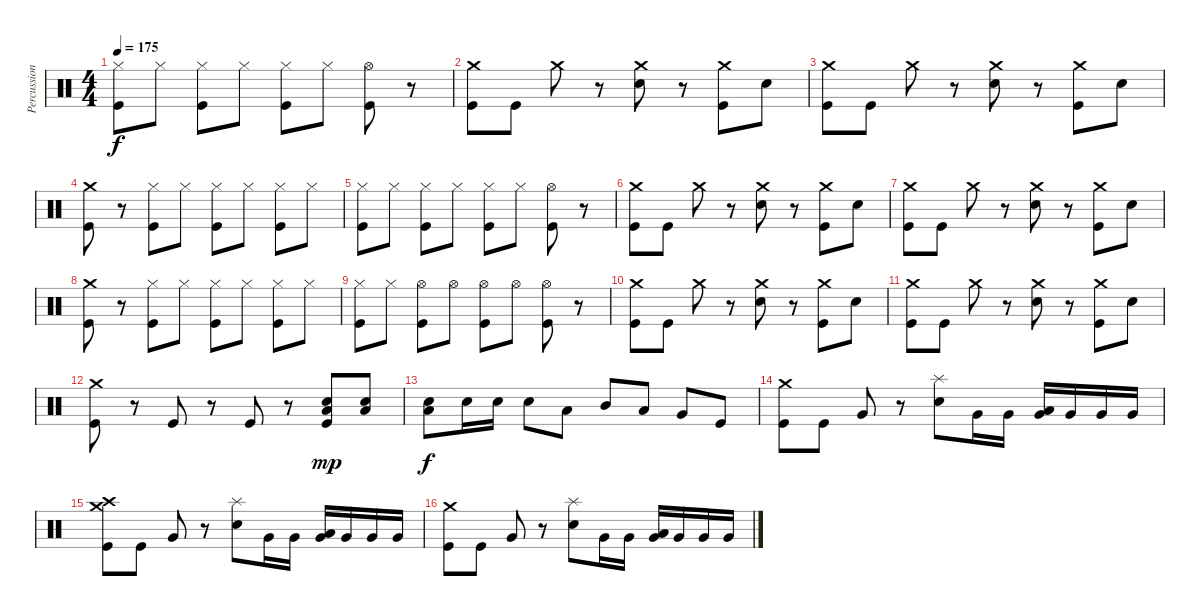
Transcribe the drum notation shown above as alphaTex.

\track ("Percussion" "Percussion") {instrument percussion}
\staff {score}
\articulation defaults
\ts (4 4)
\tempo 175
\clef neutral
\ks c
("Hi-Hat (closed)" "Kick (hit)").8{dy f} "Hi-Hat (closed)".8 ("Hi-Hat (closed)" "Kick (hit)").8 "Hi-Hat (closed)".8 ("Hi-Hat (closed)" "Kick (hit)").8 "Hi-Hat (closed)".8 ("Hi-Hat (open)" "Kick (hit)").8 r.8 |
("Crash medium (hit)" "Kick (hit)").8 "Kick (hit)".8 "Crash medium (hit)".8 r.8 ("Crash medium (hit)" "Electric Snare (hit)").8 r.8 ("Crash medium (hit)" "Kick (hit)").8 "Electric Snare (hit)".8 |
("Crash medium (hit)" "Kick (hit)").8 "Kick (hit)".8 "Crash medium (hit)".8 r.8 ("Crash medium (hit)" "Electric Snare (hit)").8 r.8 ("Crash medium (hit)" "Kick (hit)").8 "Electric Snare (hit)".8 |
("Crash medium (hit)" "Kick (hit)").8 r.8 ("Hi-Hat (closed)" "Kick (hit)").8 "Hi-Hat (closed)".8 ("Hi-Hat (closed)" "Kick (hit)").8 "Hi-Hat (closed)".8 ("Hi-Hat (closed)" "Kick (hit)").8 "Hi-Hat (closed)".8 |
("Hi-Hat (closed)" "Kick (hit)").8 "Hi-Hat (closed)".8 ("Hi-Hat (closed)" "Kick (hit)").8 "Hi-Hat (closed)".8 ("Hi-Hat (closed)" "Kick (hit)").8 "Hi-Hat (closed)".8 ("Hi-Hat (open)" "Kick (hit)").8 r.8 |
("Crash medium (hit)" "Kick (hit)").8 "Kick (hit)".8 "Crash medium (hit)".8 r.8 ("Crash medium (hit)" "Electric Snare (hit)").8 r.8 ("Crash medium (hit)" "Kick (hit)").8 "Electric Snare (hit)".8 |
("Crash medium (hit)" "Kick (hit)").8 "Kick (hit)".8 "Crash medium (hit)".8 r.8 ("Crash medium (hit)" "Electric Snare (hit)").8 r.8 ("Crash medium (hit)" "Kick (hit)").8 "Electric Snare (hit)".8 |
("Crash medium (hit)" "Kick (hit)").8 r.8 ("Hi-Hat (closed)" "Kick (hit)").8 "Hi-Hat (closed)".8 ("Hi-Hat (closed)" "Kick (hit)").8 "Hi-Hat (closed)".8 ("Hi-Hat (closed)" "Kick (hit)").8 "Hi-Hat (closed)".8 |
("Hi-Hat (closed)" "Kick (hit)").8 "Hi-Hat (closed)".8 ("Hi-Hat (open)" "Kick (hit)").8 "Hi-Hat (open)".8 ("Hi-Hat (open)" "Kick (hit)").8 "Hi-Hat (open)".8 ("Hi-Hat (open)" "Kick (hit)").8 r.8 |
("Crash medium (hit)" "Kick (hit)").8 "Kick (hit)".8 "Crash medium (hit)".8 r.8 ("Crash medium (hit)" "Electric Snare (hit)").8 r.8 ("Crash medium (hit)" "Kick (hit)").8 "Electric Snare (hit)".8 |
("Crash medium (hit)" "Kick (hit)").8 "Kick (hit)".8 "Crash medium (hit)".8 r.8 ("Crash medium (hit)" "Electric Snare (hit)").8 r.8 ("Crash medium (hit)" "Kick (hit)").8 "Electric Snare (hit)".8 |
("Crash medium (hit)" "Kick (hit)").8 r.8 "Kick (hit)".8 r.8 "Kick (hit)".8 r.8 ("Low Tom (hit)" "Electric Snare (hit)" "Kick (hit)").8{dy mp} ("Low Tom (hit)" "Electric Snare (hit)").8 |
("Low Tom (hit)" "Electric Snare (hit)").8{dy f} "Electric Snare (hit)".16 "Electric Snare (hit)".16 "Electric Snare (hit)".8 "Low Tom (hit)".8 "Mid Tom (hit)".8 "Low Tom (hit)".8 "Very Low Tom (hit)".8 "Kick (hit)".8 |
("Crash medium (hit)" "Kick (hit)").8 "Kick (hit)".8 "Very Low Tom (hit)".8 r.8 ("Splash (hit)" "Electric Snare (hit)").8 "Very Low Tom (hit)".16 "Very Low Tom (hit)".16 ("Very Low Tom (hit)" "Low Tom (hit)").16 "Very Low Tom (hit)".16 "Very Low Tom (hit)".16 "Very Low Tom (hit)".16 |
("Crash medium (hit)" "Crash high (hit)" "Kick (hit)").8 "Kick (hit)".8 "Very Low Tom (hit)".8 r.8 ("Splash (hit)" "Electric Snare (hit)").8 "Very Low Tom (hit)".16 "Very Low Tom (hit)".16 ("Very Low Tom (hit)" "Low Tom (hit)").16 "Very Low Tom (hit)".16 "Very Low Tom (hit)".16 "Very Low Tom (hit)".16 |
("Crash medium (hit)" "Kick (hit)").8 "Kick (hit)".8 "Very Low Tom (hit)".8 r.8 ("Splash (hit)" "Electric Snare (hit)").8 "Very Low Tom (hit)".16 "Very Low Tom (hit)".16 ("Very Low Tom (hit)" "Low Tom (hit)").16 "Very Low Tom (hit)".16 "Very Low Tom (hit)".16 "Very Low Tom (hit)".16
